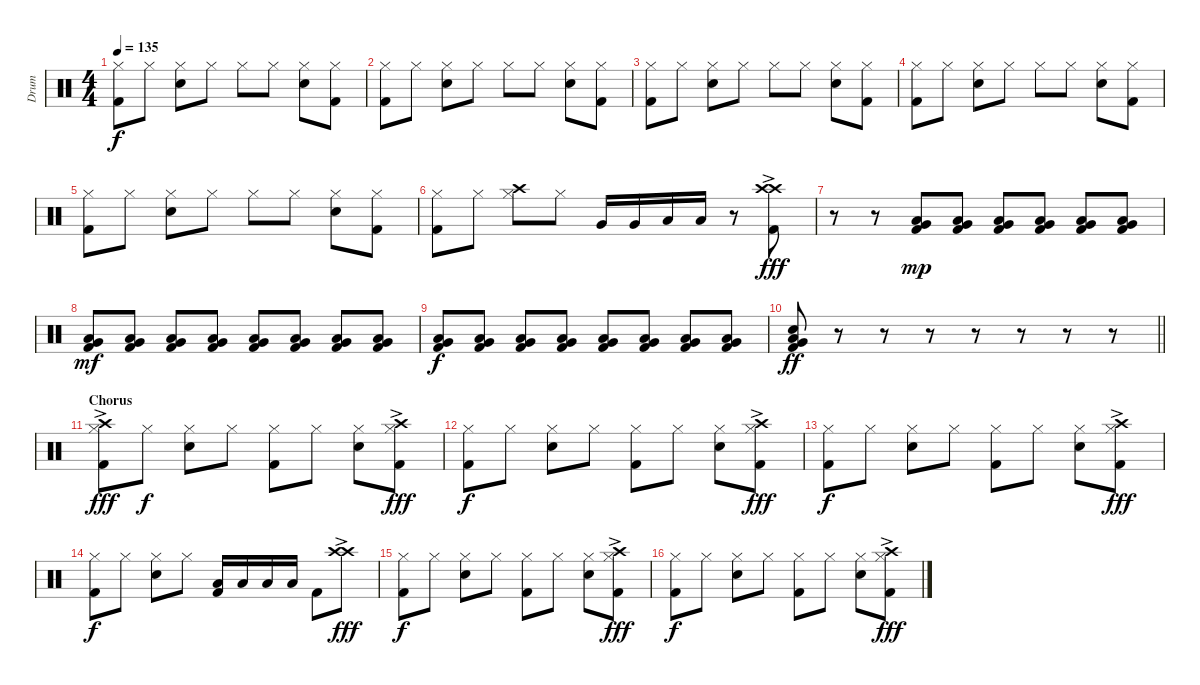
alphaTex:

\track ("Drum" "Drum") {instrument percussion}
\staff {score}
\articulation defaults
\ts (4 4)
\tempo 135
\clef neutral
\ks c
("Hi-Hat (closed)" "Kick (hit) 2").8{dy f} "Hi-Hat (closed)".8 ("Snare (hit) 2" "Hi-Hat (closed)").8 "Hi-Hat (closed)".8 "Hi-Hat (closed)".8 "Hi-Hat (closed)".8 ("Snare (hit) 2" "Hi-Hat (closed)").8 ("Hi-Hat (closed)" "Kick (hit) 2").8 |
("Hi-Hat (closed)" "Kick (hit) 2").8 "Hi-Hat (closed)".8 ("Snare (hit) 2" "Hi-Hat (closed)").8 "Hi-Hat (closed)".8 "Hi-Hat (closed)".8 "Hi-Hat (closed)".8 ("Snare (hit) 2" "Hi-Hat (closed)").8 ("Hi-Hat (closed)" "Kick (hit) 2").8 |
("Hi-Hat (closed)" "Kick (hit) 2").8 "Hi-Hat (closed)".8 ("Snare (hit) 2" "Hi-Hat (closed)").8 "Hi-Hat (closed)".8 "Hi-Hat (closed)".8 "Hi-Hat (closed)".8 ("Snare (hit) 2" "Hi-Hat (closed)").8 ("Hi-Hat (closed)" "Kick (hit) 2").8 |
("Hi-Hat (closed)" "Kick (hit) 2").8 "Hi-Hat (closed)".8 ("Snare (hit) 2" "Hi-Hat (closed)").8 "Hi-Hat (closed)".8 "Hi-Hat (closed)".8 "Hi-Hat (closed)".8 ("Snare (hit) 2" "Hi-Hat (closed)").8 ("Hi-Hat (closed)" "Kick (hit) 2").8 |
("Hi-Hat (closed)" "Kick (hit) 2").8 "Hi-Hat (closed)".8 ("Snare (hit) 2" "Hi-Hat (closed)").8 "Hi-Hat (closed)".8 "Hi-Hat (closed)".8 "Hi-Hat (closed)".8 ("Snare (hit) 2" "Hi-Hat (closed)").8 ("Hi-Hat (closed)" "Kick (hit) 2").8 |
("Hi-Hat (closed)" "Kick (hit) 2").8 "Hi-Hat (closed)".8 ("Crash high (hit)" "Hi-Hat (closed)").8 "Hi-Hat (closed)".8 "Very Low Tom (hit)".16 "Very Low Tom (hit)".16 "Low Floor Tom (hit)".16 "Low Floor Tom (hit)".16 r.8 ("Crash high (hit)"{ac} "Crash high (hit)"{ac} "Kick (hit) 2").8{dy fff} |
r.8 r.8 ("Very Low Tom (hit)" "Low Floor Tom (hit)" "Kick (hit) 2").8{dy mp} ("Very Low Tom (hit)" "Low Floor Tom (hit)" "Kick (hit) 2").8 ("Very Low Tom (hit)" "Low Floor Tom (hit)" "Kick (hit) 2").8 ("Very Low Tom (hit)" "Low Floor Tom (hit)" "Kick (hit) 2").8 ("Very Low Tom (hit)" "Low Floor Tom (hit)" "Kick (hit) 2").8 ("Very Low Tom (hit)" "Low Floor Tom (hit)" "Kick (hit) 2").8 |
("Very Low Tom (hit)" "Low Floor Tom (hit)" "Kick (hit) 2").8{dy mf} ("Very Low Tom (hit)" "Low Floor Tom (hit)" "Kick (hit) 2").8 ("Very Low Tom (hit)" "Low Floor Tom (hit)" "Kick (hit) 2").8 ("Very Low Tom (hit)" "Low Floor Tom (hit)" "Kick (hit) 2").8 ("Very Low Tom (hit)" "Low Floor Tom (hit)" "Kick (hit) 2").8 ("Very Low Tom (hit)" "Low Floor Tom (hit)" "Kick (hit) 2").8 ("Very Low Tom (hit)" "Low Floor Tom (hit)" "Kick (hit) 2").8 ("Very Low Tom (hit)" "Low Floor Tom (hit)" "Kick (hit) 2").8 |
("Very Low Tom (hit)" "Low Floor Tom (hit)" "Kick (hit) 2").8{dy f} ("Very Low Tom (hit)" "Low Floor Tom (hit)" "Kick (hit) 2").8 ("Very Low Tom (hit)" "Low Floor Tom (hit)" "Kick (hit) 2").8 ("Very Low Tom (hit)" "Low Floor Tom (hit)" "Kick (hit) 2").8 ("Very Low Tom (hit)" "Low Floor Tom (hit)" "Kick (hit) 2").8 ("Very Low Tom (hit)" "Low Floor Tom (hit)" "Kick (hit) 2").8 ("Very Low Tom (hit)" "Low Floor Tom (hit)" "Kick (hit) 2").8 ("Very Low Tom (hit)" "Low Floor Tom (hit)" "Kick (hit) 2").8 |
\barLineRight lightlight
("Snare (hit) 2" "Very Low Tom (hit)" "Low Floor Tom (hit)" "Kick (hit) 2").8{dy ff} r.8 r.8 r.8 r.8 r.8 r.8 r.8 |
\section ("" "Chorus")
("Crash high (hit)"{ac} "Hi-Hat (closed)" "Kick (hit) 2").8{dy fff} "Hi-Hat (closed)".8{dy f} ("Snare (hit) 2" "Hi-Hat (closed)").8 "Hi-Hat (closed)".8 ("Hi-Hat (closed)" "Kick (hit) 2").8 "Hi-Hat (closed)".8 ("Snare (hit) 2" "Hi-Hat (closed)").8 ("Crash high (hit)"{ac} "Hi-Hat (closed)" "Kick (hit) 2").8{dy fff} |
("Hi-Hat (closed)" "Kick (hit) 2").8{dy f} "Hi-Hat (closed)".8 ("Snare (hit) 2" "Hi-Hat (closed)").8 "Hi-Hat (closed)".8 ("Hi-Hat (closed)" "Kick (hit) 2").8 "Hi-Hat (closed)".8 ("Snare (hit) 2" "Hi-Hat (closed)").8 ("Crash high (hit)"{ac} "Hi-Hat (closed)" "Kick (hit) 2").8{dy fff} |
("Hi-Hat (closed)" "Kick (hit) 2").8{dy f} "Hi-Hat (closed)".8 ("Snare (hit) 2" "Hi-Hat (closed)").8 "Hi-Hat (closed)".8 ("Hi-Hat (closed)" "Kick (hit) 2").8 "Hi-Hat (closed)".8 ("Snare (hit) 2" "Hi-Hat (closed)").8 ("Crash high (hit)"{ac} "Hi-Hat (closed)" "Kick (hit) 2").8{dy fff} |
("Hi-Hat (closed)" "Kick (hit) 2").8{dy f} "Hi-Hat (closed)".8 ("Snare (hit) 2" "Hi-Hat (closed)").8 "Hi-Hat (closed)".8 ("Low Tom (hit)" "Kick (hit) 2").16 "Low Tom (hit)".16 "Low Tom (hit)".16 "Low Tom (hit)".16 "Kick (hit) 2".8 ("Crash high (hit)"{ac} "Crash high (hit)"{ac}).8{dy fff} |
("Hi-Hat (closed)" "Kick (hit) 2").8{dy f} "Hi-Hat (closed)".8 ("Snare (hit) 2" "Hi-Hat (closed)").8 "Hi-Hat (closed)".8 ("Hi-Hat (closed)" "Kick (hit) 2").8 "Hi-Hat (closed)".8 ("Snare (hit) 2" "Hi-Hat (closed)").8 ("Crash high (hit)"{ac} "Hi-Hat (closed)" "Kick (hit) 2").8{dy fff} |
("Hi-Hat (closed)" "Kick (hit) 2").8{dy f} "Hi-Hat (closed)".8 ("Snare (hit) 2" "Hi-Hat (closed)").8 "Hi-Hat (closed)".8 ("Hi-Hat (closed)" "Kick (hit) 2").8 "Hi-Hat (closed)".8 ("Snare (hit) 2" "Hi-Hat (closed)").8 ("Crash high (hit)"{ac} "Hi-Hat (closed)" "Kick (hit) 2").8{dy fff}
